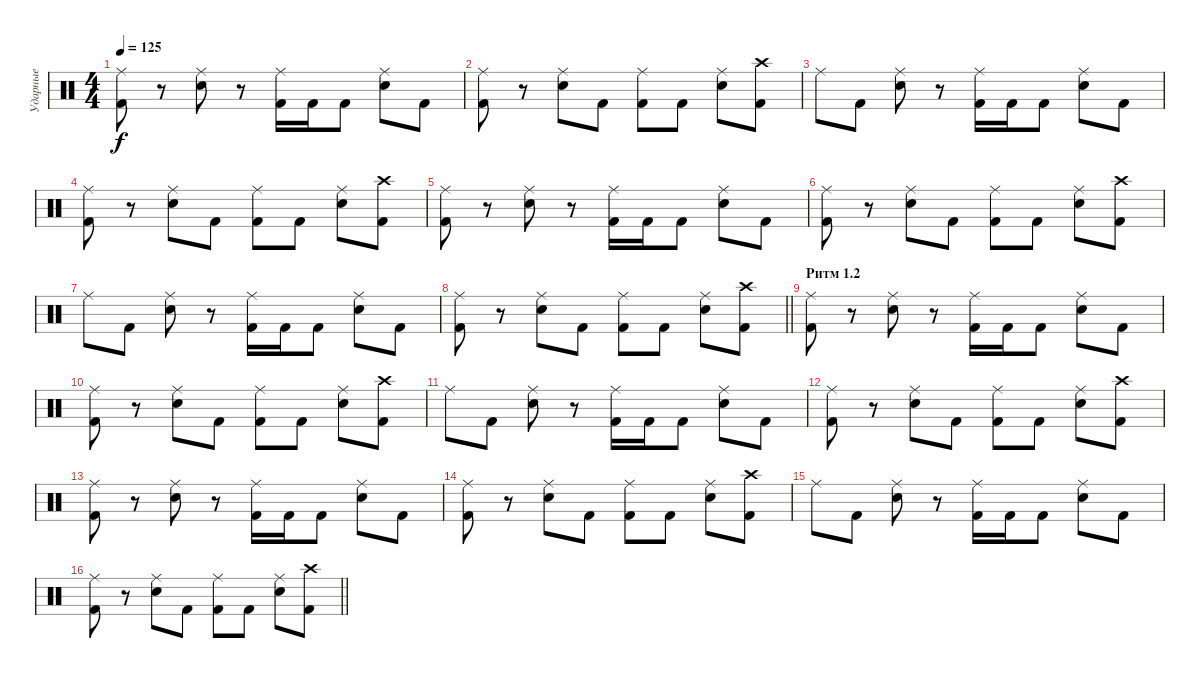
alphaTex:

\track ("Ударные" "Ударные") {instrument percussion}
\staff {score}
\articulation defaults
\ts (4 4)
\tempo 125
\clef neutral
\ks c
("Ride (middle)" "Kick (hit) 2").8{dy f} r.8 ("Ride (middle)" "Snare (hit) 2").8 r.8 ("Ride (middle)" "Kick (hit) 2").16 "Kick (hit) 2".16 "Kick (hit) 2".8 ("Ride (middle)" "Snare (hit) 2").8 "Kick (hit) 2".8 |
("Ride (middle)" "Kick (hit) 2").8 r.8 ("Ride (middle)" "Snare (hit) 2").8 "Kick (hit) 2".8 ("Ride (middle)" "Kick (hit) 2").8 "Kick (hit) 2".8 ("Ride (middle)" "Snare (hit) 2").8 ("Crash high (hit)" "Kick (hit) 2").8 |
"Ride (middle)".8 "Kick (hit) 2".8 ("Ride (middle)" "Snare (hit) 2").8 r.8 ("Ride (middle)" "Kick (hit) 2").16 "Kick (hit) 2".16 "Kick (hit) 2".8 ("Ride (middle)" "Snare (hit) 2").8 "Kick (hit) 2".8 |
("Ride (middle)" "Kick (hit) 2").8 r.8 ("Ride (middle)" "Snare (hit) 2").8 "Kick (hit) 2".8 ("Ride (middle)" "Kick (hit) 2").8 "Kick (hit) 2".8 ("Ride (middle)" "Snare (hit) 2").8 ("Crash high (hit)" "Kick (hit) 2").8 |
("Ride (middle)" "Kick (hit) 2").8 r.8 ("Ride (middle)" "Snare (hit) 2").8 r.8 ("Ride (middle)" "Kick (hit) 2").16 "Kick (hit) 2".16 "Kick (hit) 2".8 ("Ride (middle)" "Snare (hit) 2").8 "Kick (hit) 2".8 |
("Ride (middle)" "Kick (hit) 2").8 r.8 ("Ride (middle)" "Snare (hit) 2").8 "Kick (hit) 2".8 ("Ride (middle)" "Kick (hit) 2").8 "Kick (hit) 2".8 ("Ride (middle)" "Snare (hit) 2").8 ("Crash high (hit)" "Kick (hit) 2").8 |
"Ride (middle)".8 "Kick (hit) 2".8 ("Ride (middle)" "Snare (hit) 2").8 r.8 ("Ride (middle)" "Kick (hit) 2").16 "Kick (hit) 2".16 "Kick (hit) 2".8 ("Ride (middle)" "Snare (hit) 2").8 "Kick (hit) 2".8 |
\barLineRight lightlight
("Ride (middle)" "Kick (hit) 2").8 r.8 ("Ride (middle)" "Snare (hit) 2").8 "Kick (hit) 2".8 ("Ride (middle)" "Kick (hit) 2").8 "Kick (hit) 2".8 ("Ride (middle)" "Snare (hit) 2").8 ("Crash high (hit)" "Kick (hit) 2").8 |
\section ("" "Ритм 1.2")
("Ride (middle)" "Kick (hit) 2").8 r.8 ("Ride (middle)" "Snare (hit) 2").8 r.8 ("Ride (middle)" "Kick (hit) 2").16 "Kick (hit) 2".16 "Kick (hit) 2".8 ("Ride (middle)" "Snare (hit) 2").8 "Kick (hit) 2".8 |
("Ride (middle)" "Kick (hit) 2").8 r.8 ("Ride (middle)" "Snare (hit) 2").8 "Kick (hit) 2".8 ("Ride (middle)" "Kick (hit) 2").8 "Kick (hit) 2".8 ("Ride (middle)" "Snare (hit) 2").8 ("Crash high (hit)" "Kick (hit) 2").8 |
"Ride (middle)".8 "Kick (hit) 2".8 ("Ride (middle)" "Snare (hit) 2").8 r.8 ("Ride (middle)" "Kick (hit) 2").16 "Kick (hit) 2".16 "Kick (hit) 2".8 ("Ride (middle)" "Snare (hit) 2").8 "Kick (hit) 2".8 |
("Ride (middle)" "Kick (hit) 2").8 r.8 ("Ride (middle)" "Snare (hit) 2").8 "Kick (hit) 2".8 ("Ride (middle)" "Kick (hit) 2").8 "Kick (hit) 2".8 ("Ride (middle)" "Snare (hit) 2").8 ("Crash high (hit)" "Kick (hit) 2").8 |
("Ride (middle)" "Kick (hit) 2").8 r.8 ("Ride (middle)" "Snare (hit) 2").8 r.8 ("Ride (middle)" "Kick (hit) 2").16 "Kick (hit) 2".16 "Kick (hit) 2".8 ("Ride (middle)" "Snare (hit) 2").8 "Kick (hit) 2".8 |
("Ride (middle)" "Kick (hit) 2").8 r.8 ("Ride (middle)" "Snare (hit) 2").8 "Kick (hit) 2".8 ("Ride (middle)" "Kick (hit) 2").8 "Kick (hit) 2".8 ("Ride (middle)" "Snare (hit) 2").8 ("Crash high (hit)" "Kick (hit) 2").8 |
"Ride (middle)".8 "Kick (hit) 2".8 ("Ride (middle)" "Snare (hit) 2").8 r.8 ("Ride (middle)" "Kick (hit) 2").16 "Kick (hit) 2".16 "Kick (hit) 2".8 ("Ride (middle)" "Snare (hit) 2").8 "Kick (hit) 2".8 |
\barLineRight lightlight
("Ride (middle)" "Kick (hit) 2").8 r.8 ("Ride (middle)" "Snare (hit) 2").8 "Kick (hit) 2".8 ("Ride (middle)" "Kick (hit) 2").8 "Kick (hit) 2".8 ("Ride (middle)" "Snare (hit) 2").8 ("Crash high (hit)" "Kick (hit) 2").8
